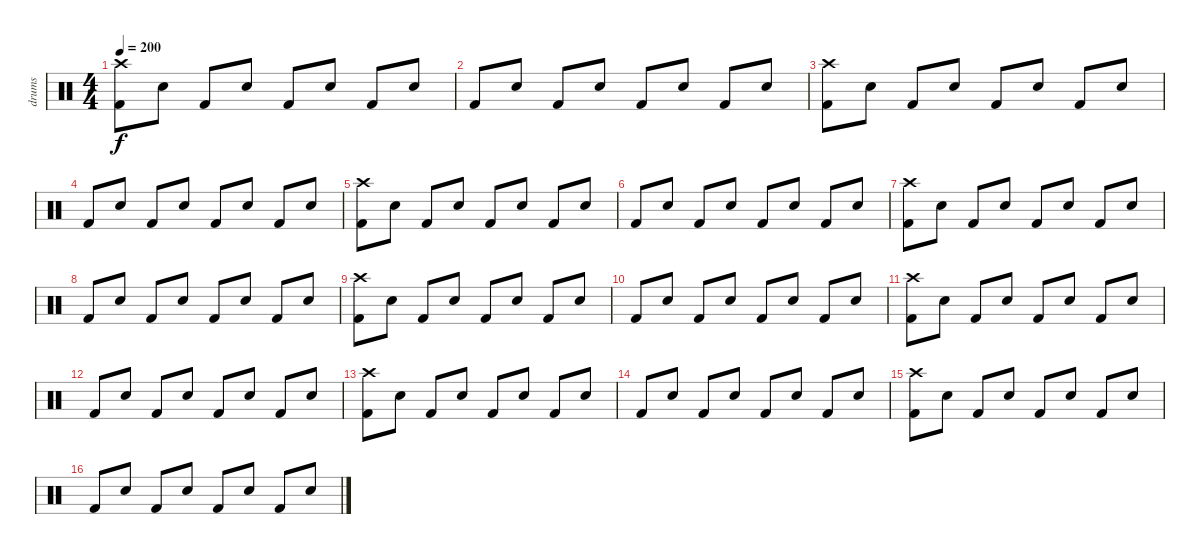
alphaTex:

\track ("drums" "drums") {instrument percussion}
\staff {score}
\articulation defaults
\ts (4 4)
\tempo 200
\clef neutral
\ks c
("Crash high (hit)" "Kick (hit) 2").8{dy f} "Electric Snare (hit)".8 "Kick (hit) 2".8 "Electric Snare (hit)".8 "Kick (hit) 2".8 "Electric Snare (hit)".8 "Kick (hit) 2".8 "Electric Snare (hit)".8 |
"Kick (hit) 2".8 "Electric Snare (hit)".8 "Kick (hit) 2".8 "Electric Snare (hit)".8 "Kick (hit) 2".8 "Electric Snare (hit)".8 "Kick (hit) 2".8 "Electric Snare (hit)".8 |
("Crash high (hit)" "Kick (hit) 2").8 "Electric Snare (hit)".8 "Kick (hit) 2".8 "Electric Snare (hit)".8 "Kick (hit) 2".8 "Electric Snare (hit)".8 "Kick (hit) 2".8 "Electric Snare (hit)".8 |
"Kick (hit) 2".8 "Electric Snare (hit)".8 "Kick (hit) 2".8 "Electric Snare (hit)".8 "Kick (hit) 2".8 "Electric Snare (hit)".8 "Kick (hit) 2".8 "Electric Snare (hit)".8 |
("Crash high (hit)" "Kick (hit) 2").8 "Electric Snare (hit)".8 "Kick (hit) 2".8 "Electric Snare (hit)".8 "Kick (hit) 2".8 "Electric Snare (hit)".8 "Kick (hit) 2".8 "Electric Snare (hit)".8 |
"Kick (hit) 2".8 "Electric Snare (hit)".8 "Kick (hit) 2".8 "Electric Snare (hit)".8 "Kick (hit) 2".8 "Electric Snare (hit)".8 "Kick (hit) 2".8 "Electric Snare (hit)".8 |
("Crash high (hit)" "Kick (hit) 2").8 "Electric Snare (hit)".8 "Kick (hit) 2".8 "Electric Snare (hit)".8 "Kick (hit) 2".8 "Electric Snare (hit)".8 "Kick (hit) 2".8 "Electric Snare (hit)".8 |
"Kick (hit) 2".8 "Electric Snare (hit)".8 "Kick (hit) 2".8 "Electric Snare (hit)".8 "Kick (hit) 2".8 "Electric Snare (hit)".8 "Kick (hit) 2".8 "Electric Snare (hit)".8 |
("Crash high (hit)" "Kick (hit) 2").8 "Electric Snare (hit)".8 "Kick (hit) 2".8 "Electric Snare (hit)".8 "Kick (hit) 2".8 "Electric Snare (hit)".8 "Kick (hit) 2".8 "Electric Snare (hit)".8 |
"Kick (hit) 2".8 "Electric Snare (hit)".8 "Kick (hit) 2".8 "Electric Snare (hit)".8 "Kick (hit) 2".8 "Electric Snare (hit)".8 "Kick (hit) 2".8 "Electric Snare (hit)".8 |
("Crash high (hit)" "Kick (hit) 2").8 "Electric Snare (hit)".8 "Kick (hit) 2".8 "Electric Snare (hit)".8 "Kick (hit) 2".8 "Electric Snare (hit)".8 "Kick (hit) 2".8 "Electric Snare (hit)".8 |
"Kick (hit) 2".8 "Electric Snare (hit)".8 "Kick (hit) 2".8 "Electric Snare (hit)".8 "Kick (hit) 2".8 "Electric Snare (hit)".8 "Kick (hit) 2".8 "Electric Snare (hit)".8 |
("Crash high (hit)" "Kick (hit) 2").8 "Electric Snare (hit)".8 "Kick (hit) 2".8 "Electric Snare (hit)".8 "Kick (hit) 2".8 "Electric Snare (hit)".8 "Kick (hit) 2".8 "Electric Snare (hit)".8 |
"Kick (hit) 2".8 "Electric Snare (hit)".8 "Kick (hit) 2".8 "Electric Snare (hit)".8 "Kick (hit) 2".8 "Electric Snare (hit)".8 "Kick (hit) 2".8 "Electric Snare (hit)".8 |
("Crash high (hit)" "Kick (hit) 2").8 "Electric Snare (hit)".8 "Kick (hit) 2".8 "Electric Snare (hit)".8 "Kick (hit) 2".8 "Electric Snare (hit)".8 "Kick (hit) 2".8 "Electric Snare (hit)".8 |
"Kick (hit) 2".8 "Electric Snare (hit)".8 "Kick (hit) 2".8 "Electric Snare (hit)".8 "Kick (hit) 2".8 "Electric Snare (hit)".8 "Kick (hit) 2".8 "Electric Snare (hit)".8
